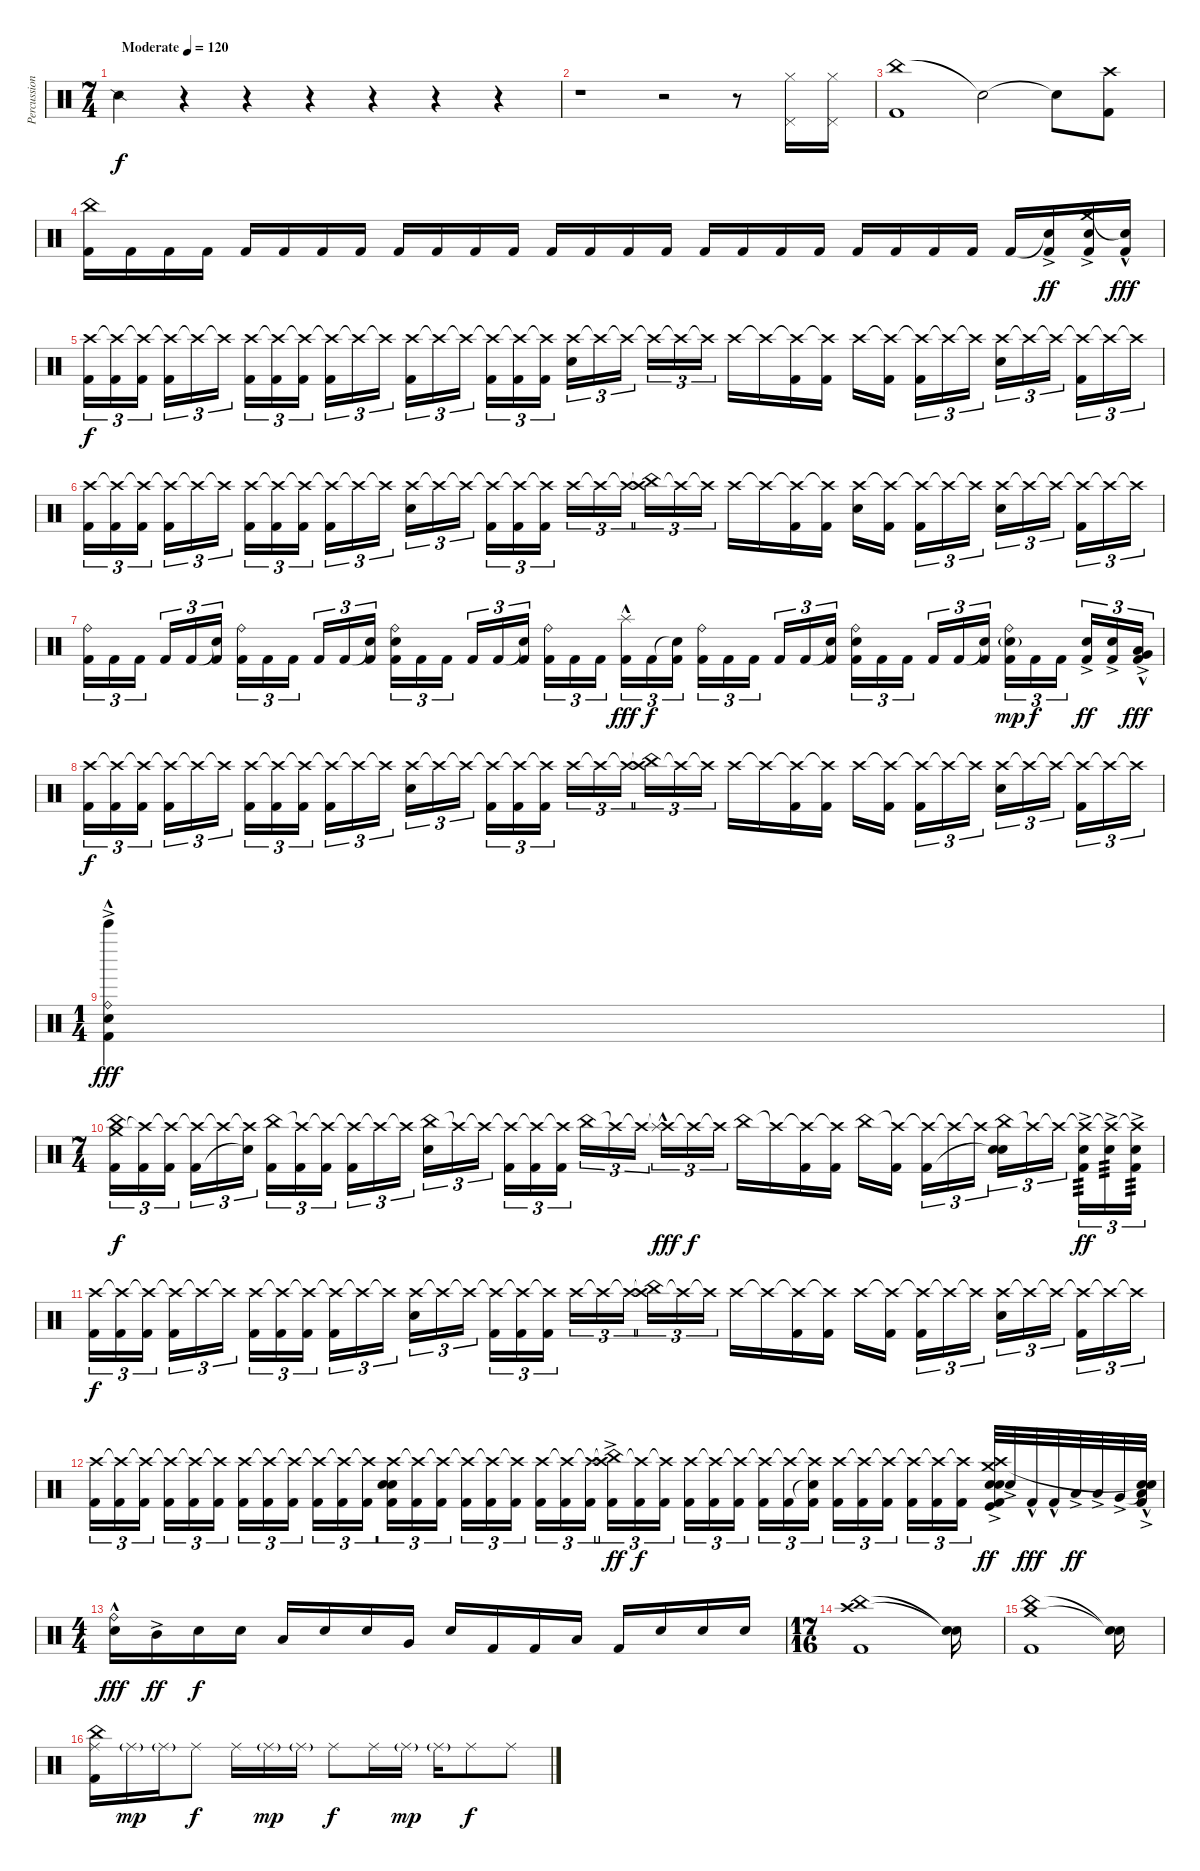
\track ("Percussion" "Percussion") {instrument percussion}
\staff {score}
\articulation defaults
\ts (7 4)
\tempo (120 "Moderate")
\clef neutral
\ks c "Snare (side stick) 2".4{dy f}
r.4 r.4 r.4 r.4 r.4 r.4 |
r.1 r.2 r.8 ("Pedal Hi-Hat (hit)" "Hi-Hat (closed)").16 ("Pedal Hi-Hat (hit)" "Hi-Hat (closed)").16 |
("China (hit)" "Kick (hit) 2").1 "Snare (hit)"{t}.2 "Snare (hit)"{t}.8 ("Crash high (hit)" "Kick (hit) 2").8 |
("China (hit)" "Kick (hit) 2").16 "Kick (hit) 2".16 "Kick (hit) 2".16 "Kick (hit) 2".16 "Kick (hit) 2".16 "Kick (hit) 2".16 "Kick (hit) 2".16 "Kick (hit) 2".16 "Kick (hit) 2".16 "Kick (hit) 2".16 "Kick (hit) 2".16 "Kick (hit) 2".16 "Kick (hit) 2".16 "Kick (hit) 2".16 "Kick (hit) 2".16 "Kick (hit) 2".16 "Kick (hit) 2".16 "Kick (hit) 2".16 "Kick (hit) 2".16 "Kick (hit) 2".16 "Kick (hit) 2".16 "Kick (hit) 2".16 "Kick (hit) 2".16 "Kick (hit) 2".16 "Kick (hit) 2".16 ("Snare (hit)"{t} "Kick (hit) 2"{ac}).16{dy ff} ("Crash medium (hit)" "Electric Snare (hit)" "Kick (hit) 2"{ac}).16 ("Snare (hit)"{t} "Kick (hit) 2"{hac}).16{dy fff} |
("Crash high (hit)" "Kick (hit) 2").16{tu (3 2) dy f} ("Crash high (hit)"{t} "Kick (hit) 2").16{tu (3 2)} ("Crash high (hit)"{t} "Kick (hit) 2").16{tu (3 2) beam splitsecondary} ("Crash high (hit)"{t} "Kick (hit) 2").16{tu (3 2)} "Crash high (hit)"{t}.16{tu (3 2)} "Crash high (hit)"{t}.16{tu (3 2)} ("Crash high (hit)" "Kick (hit) 2").16{tu (3 2)} ("Crash high (hit)"{t} "Kick (hit) 2").16{tu (3 2)} ("Crash high (hit)"{t} "Kick (hit) 2").16{tu (3 2) beam splitsecondary} ("Crash high (hit)"{t} "Kick (hit) 2").16{tu (3 2)} "Crash high (hit)"{t}.16{tu (3 2)} "Crash high (hit)"{t}.16{tu (3 2)} ("Crash high (hit)" "Kick (hit) 2").16{tu (3 2)} "Crash high (hit)"{t}.16{tu (3 2)} "Crash high (hit)"{t}.16{tu (3 2) beam splitsecondary} ("Crash high (hit)"{t} "Kick (hit) 2").16{tu (3 2)} ("Crash high (hit)"{t} "Kick (hit) 2").16{tu (3 2)} ("Crash high (hit)"{t} "Kick (hit) 2").16{tu (3 2)} ("Crash high (hit)" "Snare (hit) 2").16{tu (3 2)} "Crash high (hit)"{t}.16{tu (3 2)} "Crash high (hit)"{t}.16{tu (3 2) beam splitsecondary} "Crash high (hit)"{t}.16{tu (3 2)} "Crash high (hit)"{t}.16{tu (3 2)} "Crash high (hit)"{t}.16{tu (3 2)} "Crash high (hit)".16 "Crash high (hit)"{t}.16 ("Crash high (hit)"{t} "Kick (hit) 2").16 ("Crash high (hit)"{t} "Kick (hit) 2").16 "Crash high (hit)".16 ("Crash high (hit)"{t} "Kick (hit) 2").16{beam splitsecondary} ("Crash high (hit)"{t} "Kick (hit) 2").16{tu (3 2)} "Crash high (hit)"{t}.16{tu (3 2)} "Crash high (hit)"{t}.16{tu (3 2)} ("Crash high (hit)" "Snare (hit) 2").16{tu (3 2)} "Crash high (hit)"{t}.16{tu (3 2)} "Crash high (hit)"{t}.16{tu (3 2) beam splitsecondary} ("Crash high (hit)"{t} "Kick (hit) 2").16{tu (3 2)} "Crash high (hit)"{t}.16{tu (3 2)} "Crash high (hit)"{t}.16{tu (3 2)} |
("Crash high (hit)" "Kick (hit) 2").16{tu (3 2)} ("Crash high (hit)"{t} "Kick (hit) 2").16{tu (3 2)} ("Crash high (hit)"{t} "Kick (hit) 2").16{tu (3 2) beam splitsecondary} ("Crash high (hit)"{t} "Kick (hit) 2").16{tu (3 2)} "Crash high (hit)"{t}.16{tu (3 2)} "Crash high (hit)"{t}.16{tu (3 2)} ("Crash high (hit)" "Kick (hit) 2").16{tu (3 2)} ("Crash high (hit)"{t} "Kick (hit) 2").16{tu (3 2)} ("Crash high (hit)"{t} "Kick (hit) 2").16{tu (3 2) beam splitsecondary} ("Crash high (hit)"{t} "Kick (hit) 2").16{tu (3 2)} "Crash high (hit)"{t}.16{tu (3 2)} "Crash high (hit)"{t}.16{tu (3 2)} ("Crash high (hit)" "Snare (hit) 2").16{tu (3 2)} "Crash high (hit)"{t}.16{tu (3 2)} "Crash high (hit)"{t}.16{tu (3 2) beam splitsecondary} ("Crash high (hit)"{t} "Kick (hit) 2").16{tu (3 2)} ("Crash high (hit)"{t} "Kick (hit) 2").16{tu (3 2)} ("Crash high (hit)"{t} "Kick (hit) 2").16{tu (3 2)} "Crash high (hit)".16{tu (3 2)} "Crash high (hit)"{t}.16{tu (3 2)} "Crash high (hit)"{t}.16{tu (3 2) beam splitsecondary} ("Crash high (hit)"{t} "China (hit)").16{tu (3 2)} "Crash high (hit)"{t}.16{tu (3 2)} "Crash high (hit)"{t}.16{tu (3 2)} "Crash high (hit)".16 "Crash high (hit)"{t}.16 ("Crash high (hit)"{t} "Kick (hit) 2").16 ("Crash high (hit)"{t} "Kick (hit) 2").16 ("Crash high (hit)" "Snare (hit) 2").16 ("Crash high (hit)"{t} "Kick (hit) 2").16{beam splitsecondary} ("Crash high (hit)"{t} "Kick (hit) 2").16{tu (3 2)} "Crash high (hit)"{t}.16{tu (3 2)} "Crash high (hit)"{t}.16{tu (3 2)} ("Crash high (hit)" "Snare (hit) 2").16{tu (3 2)} "Crash high (hit)"{t}.16{tu (3 2)} "Crash high (hit)"{t}.16{tu (3 2) beam splitsecondary} ("Crash high (hit)"{t} "Kick (hit) 2").16{tu (3 2)} "Crash high (hit)"{t}.16{tu (3 2)} "Crash high (hit)"{t}.16{tu (3 2)} |
("Ride (bell)" "Kick (hit) 2").16{tu (3 2)} "Kick (hit) 2".16{tu (3 2)} "Kick (hit) 2".16{tu (3 2) beam splitsecondary} "Kick (hit) 2".16{tu (3 2)} "Kick (hit) 2".16{tu (3 2)} ("Snare (hit)"{t} "Kick (hit) 2").16{tu (3 2)} ("Ride (bell)" "Kick (hit) 2").16{tu (3 2)} "Kick (hit) 2".16{tu (3 2)} "Kick (hit) 2".16{tu (3 2) beam splitsecondary} "Kick (hit) 2".16{tu (3 2)} "Kick (hit) 2".16{tu (3 2)} ("Snare (hit)"{t} "Kick (hit) 2").16{tu (3 2)} ("Ride (bell)" "Snare (hit) 2" "Kick (hit) 2").16{tu (3 2)} "Kick (hit) 2".16{tu (3 2)} "Kick (hit) 2".16{tu (3 2) beam splitsecondary} "Kick (hit) 2".16{tu (3 2)} "Kick (hit) 2".16{tu (3 2)} ("Snare (hit)"{t} "Kick (hit) 2").16{tu (3 2)} ("Ride (bell)" "Kick (hit) 2").16{tu (3 2)} "Kick (hit) 2".16{tu (3 2)} "Kick (hit) 2".16{tu (3 2) beam splitsecondary} ("Splash (hit)"{hac} "Kick (hit) 2").16{tu (3 2) dy fff} "Kick (hit) 2".16{tu (3 2) dy f} ("Snare (hit)"{t} "Kick (hit) 2").16{tu (3 2)} ("Ride (bell)" "Kick (hit) 2").16{tu (3 2)} "Kick (hit) 2".16{tu (3 2)} "Kick (hit) 2".16{tu (3 2) beam splitsecondary} "Kick (hit) 2".16{tu (3 2)} "Kick (hit) 2".16{tu (3 2)} ("Snare (hit)"{t} "Kick (hit) 2").16{tu (3 2)} ("Ride (bell)" "Snare (hit) 2" "Kick (hit) 2").16{tu (3 2)} "Kick (hit) 2".16{tu (3 2)} "Kick (hit) 2".16{tu (3 2) beam splitsecondary} "Kick (hit) 2".16{tu (3 2)} "Kick (hit) 2".16{tu (3 2)} ("Snare (hit)"{t} "Kick (hit) 2").16{tu (3 2)} ("Ride (bell)" "Snare (hit) 2"{g} "Kick (hit) 2").16{tu (3 2) dy mp} "Kick (hit) 2".16{tu (3 2) dy f} "Kick (hit) 2".16{tu (3 2) beam splitsecondary} ("Electric Snare (hit)"{ac} "Kick (hit) 2").16{tu (3 2) dy ff} ("Electric Snare (hit)"{ac} "Kick (hit) 2").16{tu (3 2)} ("Low Tom (hit)"{ac} "Very Low Tom (hit)"{ac} "Kick (hit) 2"{hac}).16{tu (3 2) dy fff} |
("Crash high (hit)" "Kick (hit) 2").16{tu (3 2) dy f} ("Crash high (hit)"{t} "Kick (hit) 2").16{tu (3 2)} ("Crash high (hit)"{t} "Kick (hit) 2").16{tu (3 2) beam splitsecondary} ("Crash high (hit)"{t} "Kick (hit) 2").16{tu (3 2)} "Crash high (hit)"{t}.16{tu (3 2)} "Crash high (hit)"{t}.16{tu (3 2)} ("Crash high (hit)" "Kick (hit) 2").16{tu (3 2)} ("Crash high (hit)"{t} "Kick (hit) 2").16{tu (3 2)} ("Crash high (hit)"{t} "Kick (hit) 2").16{tu (3 2) beam splitsecondary} ("Crash high (hit)"{t} "Kick (hit) 2").16{tu (3 2)} "Crash high (hit)"{t}.16{tu (3 2)} "Crash high (hit)"{t}.16{tu (3 2)} ("Crash high (hit)" "Snare (hit) 2").16{tu (3 2)} "Crash high (hit)"{t}.16{tu (3 2)} "Crash high (hit)"{t}.16{tu (3 2) beam splitsecondary} ("Crash high (hit)"{t} "Kick (hit) 2").16{tu (3 2)} ("Crash high (hit)"{t} "Kick (hit) 2").16{tu (3 2)} ("Crash high (hit)"{t} "Kick (hit) 2").16{tu (3 2)} "Crash high (hit)".16{tu (3 2)} "Crash high (hit)"{t}.16{tu (3 2)} "Crash high (hit)"{t}.16{tu (3 2) beam splitsecondary} ("Crash high (hit)"{t} "China (hit)").16{tu (3 2)} "Crash high (hit)"{t}.16{tu (3 2)} "Crash high (hit)"{t}.16{tu (3 2)} "Crash high (hit)".16 "Crash high (hit)"{t}.16 ("Crash high (hit)"{t} "Kick (hit) 2").16 ("Crash high (hit)"{t} "Kick (hit) 2").16 "Crash high (hit)".16 ("Crash high (hit)"{t} "Kick (hit) 2").16{beam splitsecondary} ("Crash high (hit)"{t} "Kick (hit) 2").16{tu (3 2)} "Crash high (hit)"{t}.16{tu (3 2)} "Crash high (hit)"{t}.16{tu (3 2)} ("Crash high (hit)" "Snare (hit) 2").16{tu (3 2)} "Crash high (hit)"{t}.16{tu (3 2)} "Crash high (hit)"{t}.16{tu (3 2) beam splitsecondary} ("Crash high (hit)"{t} "Kick (hit) 2").16{tu (3 2)} "Crash high (hit)"{t}.16{tu (3 2)} "Crash high (hit)"{t}.16{tu (3 2)} |
\ts (1 4)
("Metronome (bell)"{ac} "Ride (bell)" "Bell Tree (hit)" "Kick (hit) 2"{hac}).4{dy fff} |
\ts (7 4)
("Crash medium (hit)" "China (hit)" "Kick (hit) 2").16{tu (3 2) dy f} ("Crash high (hit)"{t} "Kick (hit) 2").16{tu (3 2)} ("Crash high (hit)"{t} "Kick (hit) 2").16{tu (3 2) beam splitsecondary} ("Crash high (hit)"{t} "Kick (hit) 2").16{tu (3 2)} "Crash high (hit)"{t}.16{tu (3 2)} ("Crash high (hit)"{t} "Snare (hit)"{t}).16{tu (3 2)} ("China (hit)" "Kick (hit) 2").16{tu (3 2)} ("Crash high (hit)"{t} "Kick (hit) 2").16{tu (3 2)} ("Crash high (hit)"{t} "Kick (hit) 2").16{tu (3 2) beam splitsecondary} ("Crash high (hit)"{t} "Kick (hit) 2").16{tu (3 2)} "Crash high (hit)"{t}.16{tu (3 2)} "Crash high (hit)"{t}.16{tu (3 2)} ("China (hit)" "Snare (hit) 2").16{tu (3 2)} "Crash high (hit)"{t}.16{tu (3 2)} "Crash high (hit)"{t}.16{tu (3 2) beam splitsecondary} ("Crash high (hit)"{t} "Kick (hit) 2").16{tu (3 2)} ("Crash high (hit)"{t} "Kick (hit) 2").16{tu (3 2)} ("Crash high (hit)"{t} "Kick (hit) 2").16{tu (3 2)} "China (hit)".16{tu (3 2)} "Crash high (hit)"{t}.16{tu (3 2)} "Crash high (hit)"{t}.16{tu (3 2) beam splitsecondary} ("Crash high (hit)"{t} "Splash (hit)"{hac}).16{tu (3 2) dy fff} "Crash high (hit)"{t}.16{tu (3 2) dy f} "Crash high (hit)"{t}.16{tu (3 2)} "China (hit)".16 "Crash high (hit)"{t}.16 ("Crash high (hit)"{t} "Kick (hit) 2").16 ("Crash high (hit)"{t} "Kick (hit) 2").16 "China (hit)".16 ("Crash high (hit)"{t} "Kick (hit) 2").16{beam splitsecondary} ("Crash high (hit)"{t} "Kick (hit) 2").16{tu (3 2)} "Crash high (hit)"{t}.16{tu (3 2)} "Crash high (hit)"{t}.16{tu (3 2)} ("China (hit)" "Snare (hit)"{t} "Snare (hit) 2").16{tu (3 2)} "Crash high (hit)"{t}.16{tu (3 2)} "Crash high (hit)"{t}.16{tu (3 2) beam splitsecondary} ("Crash high (hit)"{t} "Electric Snare (hit)"{ac} "Kick (hit) 2").16{tu (3 2) tp 3 dy ff} ("Crash high (hit)"{t} "Electric Snare (hit)"{ac}).16{tu (3 2) tp 3} ("Crash high (hit)"{t} "Electric Snare (hit)"{ac} "Kick (hit) 2").16{tu (3 2) tp 3} |
("Crash high (hit)" "Kick (hit) 2").16{tu (3 2) dy f} ("Crash high (hit)"{t} "Kick (hit) 2").16{tu (3 2)} ("Crash high (hit)"{t} "Kick (hit) 2").16{tu (3 2) beam splitsecondary} ("Crash high (hit)"{t} "Kick (hit) 2").16{tu (3 2)} "Crash high (hit)"{t}.16{tu (3 2)} "Crash high (hit)"{t}.16{tu (3 2)} ("Crash high (hit)" "Kick (hit) 2").16{tu (3 2)} ("Crash high (hit)"{t} "Kick (hit) 2").16{tu (3 2)} ("Crash high (hit)"{t} "Kick (hit) 2").16{tu (3 2) beam splitsecondary} ("Crash high (hit)"{t} "Kick (hit) 2").16{tu (3 2)} "Crash high (hit)"{t}.16{tu (3 2)} "Crash high (hit)"{t}.16{tu (3 2)} ("Crash high (hit)" "Snare (hit) 2").16{tu (3 2)} "Crash high (hit)"{t}.16{tu (3 2)} "Crash high (hit)"{t}.16{tu (3 2) beam splitsecondary} ("Crash high (hit)"{t} "Kick (hit) 2").16{tu (3 2)} ("Crash high (hit)"{t} "Kick (hit) 2").16{tu (3 2)} ("Crash high (hit)"{t} "Kick (hit) 2").16{tu (3 2)} "Crash high (hit)".16{tu (3 2)} "Crash high (hit)"{t}.16{tu (3 2)} "Crash high (hit)"{t}.16{tu (3 2) beam splitsecondary} ("Crash high (hit)"{t} "China (hit)").16{tu (3 2)} "Crash high (hit)"{t}.16{tu (3 2)} "Crash high (hit)"{t}.16{tu (3 2)} "Crash high (hit)".16 "Crash high (hit)"{t}.16 ("Crash high (hit)"{t} "Kick (hit) 2").16 ("Crash high (hit)"{t} "Kick (hit) 2").16 "Crash high (hit)".16 ("Crash high (hit)"{t} "Kick (hit) 2").16{beam splitsecondary} ("Crash high (hit)"{t} "Kick (hit) 2").16{tu (3 2)} "Crash high (hit)"{t}.16{tu (3 2)} "Crash high (hit)"{t}.16{tu (3 2)} ("Crash high (hit)" "Snare (hit) 2").16{tu (3 2)} "Crash high (hit)"{t}.16{tu (3 2)} "Crash high (hit)"{t}.16{tu (3 2) beam splitsecondary} ("Crash high (hit)"{t} "Kick (hit) 2").16{tu (3 2)} "Crash high (hit)"{t}.16{tu (3 2)} "Crash high (hit)"{t}.16{tu (3 2)} |
("Crash high (hit)" "Kick (hit) 2").16{tu (3 2)} ("Crash high (hit)"{t} "Kick (hit) 2").16{tu (3 2)} ("Crash high (hit)"{t} "Kick (hit) 2").16{tu (3 2) beam splitsecondary} ("Crash high (hit)"{t} "Kick (hit) 2").16{tu (3 2)} ("Crash high (hit)"{t} "Kick (hit) 2").16{tu (3 2)} ("Crash high (hit)"{t} "Kick (hit) 2").16{tu (3 2)} ("Crash high (hit)" "Kick (hit) 2").16{tu (3 2)} ("Crash high (hit)"{t} "Kick (hit) 2").16{tu (3 2)} ("Crash high (hit)"{t} "Kick (hit) 2").16{tu (3 2) beam splitsecondary} ("Crash high (hit)"{t} "Kick (hit) 2").16{tu (3 2)} ("Crash high (hit)"{t} "Kick (hit) 2").16{tu (3 2)} ("Crash high (hit)"{t} "Kick (hit) 2").16{tu (3 2)} ("Crash high (hit)" "Snare (hit) 2" "Electric Snare (hit)" "Kick (hit) 2").16{tu (3 2)} ("Crash high (hit)"{t} "Kick (hit) 2").16{tu (3 2)} ("Crash high (hit)"{t} "Kick (hit) 2").16{tu (3 2) beam splitsecondary} ("Crash high (hit)"{t} "Kick (hit) 2").16{tu (3 2)} ("Crash high (hit)"{t} "Kick (hit) 2").16{tu (3 2)} ("Crash high (hit)"{t} "Kick (hit) 2").16{tu (3 2)} ("Crash high (hit)" "Kick (hit) 2").16{tu (3 2)} ("Crash high (hit)"{t} "Kick (hit) 2").16{tu (3 2)} ("Crash high (hit)"{t} "Kick (hit) 2").16{tu (3 2) beam splitsecondary} ("Crash high (hit)"{t} "China (hit)"{ac} "Kick (hit) 2").16{tu (3 2) dy ff} ("Crash high (hit)"{t} "Kick (hit) 2").16{tu (3 2) dy f} ("Crash high (hit)"{t} "Kick (hit) 2").16{tu (3 2)} ("Crash high (hit)" "Kick (hit) 2").16{tu (3 2)} ("Crash high (hit)"{t} "Kick (hit) 2").16{tu (3 2)} ("Crash high (hit)"{t} "Kick (hit) 2").16{tu (3 2) beam splitsecondary} ("Crash high (hit)"{t} "Kick (hit) 2").16{tu (3 2)} ("Crash high (hit)"{t} "Kick (hit) 2").16{tu (3 2)} ("Crash high (hit)"{t} "Snare (hit)"{t} "Kick (hit) 2").16{tu (3 2)} ("Crash high (hit)" "Kick (hit) 2").16{tu (3 2)} ("Crash high (hit)"{t} "Kick (hit) 2").16{tu (3 2)} ("Crash high (hit)"{t} "Kick (hit) 2").16{tu (3 2) beam splitsecondary} ("Crash high (hit)"{t} "Kick (hit) 2").16{tu (3 2)} ("Crash high (hit)"{t} "Kick (hit) 2").16{tu (3 2)} ("Crash high (hit)"{t} "Kick (hit) 2").16{tu (3 2)} ("Crash high (hit)" "Crash medium (hit)" "Electric Snare (hit)"{ac} "Snare (hit) 2" "Kick (hit)" "Kick (hit) 2").32{dy ff} "Electric Snare (hit)"{ac}.32 "Kick (hit) 2"{hac}.32{dy fff} "Kick (hit) 2"{hac}.32 "Low Tom (hit)"{ac}.32{dy ff} "Low Tom (hit)"{ac}.32 "Very Low Tom (hit)"{ac}.32 ("Snare (hit)"{t} "Snare (hit)"{t} "Kick (hit) 2"{hac} "Low Floor Tom (hit)"{ac}).32 |
\ts (4 4)
("Metronome (bell)"{hac} "Ride (bell)"{hac}).16{dy fff} "Mid Tom (hit)"{ac}.16{dy ff} "Snare (hit) 2".16{dy f} "Snare (hit) 2".16 "Low Tom (hit)".16 "Snare (hit) 2".16 "Snare (hit) 2".16 "Very Low Tom (hit)".16 "Snare (hit) 2".16 "Kick (hit) 2".16 "Kick (hit) 2".16 "Low Floor Tom (hit)".16 "Kick (hit) 2".16 "Snare (hit) 2".16 "Snare (hit) 2".16 "Snare (hit) 2".16 |
\ts (17 16)
("Crash high (hit)" "China (hit)" "Kick (hit) 2").1 ("Snare (hit)"{t} "Snare (hit)"{t}).16 |
("Crash medium (hit)" "China (hit)" "Kick (hit) 2").1 ("Snare (hit)"{t} "Snare (hit)"{t}).16 |
("China (hit)" "Ride (middle)" "Kick (hit) 2").16 "Ride (middle)"{g}.16{dy mp} "Ride (middle)"{g}.16 "Ride (middle)".8{dy f} "Ride (middle)".16 "Ride (middle)"{g}.16{dy mp} "Ride (middle)"{g}.16 "Ride (middle)".8{dy f} "Ride (middle)".16 "Ride (middle)"{g}.16{dy mp} "Ride (middle)"{g}.16 "Ride (middle)".8{dy f} "Ride (middle)".8
